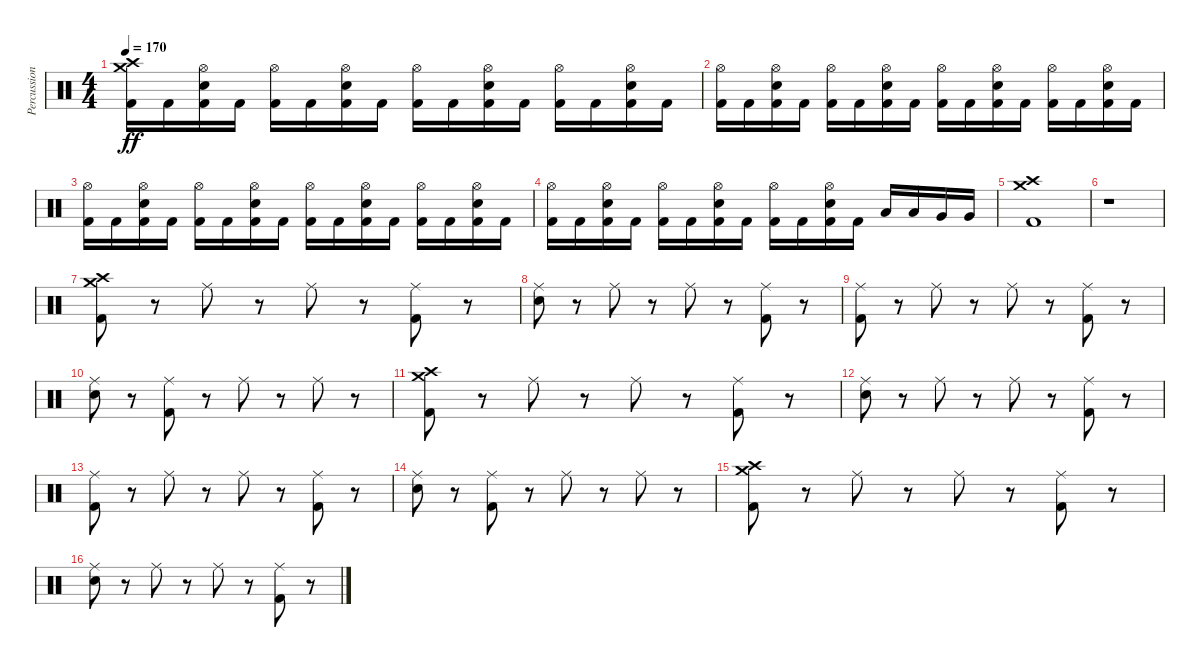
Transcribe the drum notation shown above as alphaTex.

\track ("Percussion" "Percussion") {instrument percussion}
\staff {score}
\articulation defaults
\ts (4 4)
\tempo 170
\clef neutral
\ks c
("Kick (hit) 2" "Crash medium (hit)" "Crash high (hit)").16{dy ff} "Kick (hit) 2".16 ("Kick (hit) 2" "Electric Snare (hit)" "Hi-Hat (open)").16 "Kick (hit) 2".16 ("Kick (hit) 2" "Hi-Hat (open)").16 "Kick (hit) 2".16 ("Kick (hit) 2" "Electric Snare (hit)" "Hi-Hat (open)").16 "Kick (hit) 2".16 ("Kick (hit) 2" "Hi-Hat (open)").16 "Kick (hit) 2".16 ("Kick (hit) 2" "Electric Snare (hit)" "Hi-Hat (open)").16 "Kick (hit) 2".16 ("Kick (hit) 2" "Hi-Hat (open)").16 "Kick (hit) 2".16 ("Kick (hit) 2" "Electric Snare (hit)" "Hi-Hat (open)").16 "Kick (hit) 2".16 |
("Kick (hit) 2" "Hi-Hat (open)").16 "Kick (hit) 2".16 ("Kick (hit) 2" "Electric Snare (hit)" "Hi-Hat (open)").16 "Kick (hit) 2".16 ("Kick (hit) 2" "Hi-Hat (open)").16 "Kick (hit) 2".16 ("Kick (hit) 2" "Electric Snare (hit)" "Hi-Hat (open)").16 "Kick (hit) 2".16 ("Kick (hit) 2" "Hi-Hat (open)").16 "Kick (hit) 2".16 ("Kick (hit) 2" "Electric Snare (hit)" "Hi-Hat (open)").16 "Kick (hit) 2".16 ("Kick (hit) 2" "Hi-Hat (open)").16 "Kick (hit) 2".16 ("Kick (hit) 2" "Electric Snare (hit)" "Hi-Hat (open)").16 "Kick (hit) 2".16 |
("Kick (hit) 2" "Hi-Hat (open)").16 "Kick (hit) 2".16 ("Kick (hit) 2" "Electric Snare (hit)" "Hi-Hat (open)").16 "Kick (hit) 2".16 ("Kick (hit) 2" "Hi-Hat (open)").16 "Kick (hit) 2".16 ("Kick (hit) 2" "Electric Snare (hit)" "Hi-Hat (open)").16 "Kick (hit) 2".16 ("Kick (hit) 2" "Hi-Hat (open)").16 "Kick (hit) 2".16 ("Kick (hit) 2" "Electric Snare (hit)" "Hi-Hat (open)").16 "Kick (hit) 2".16 ("Kick (hit) 2" "Hi-Hat (open)").16 "Kick (hit) 2".16 ("Kick (hit) 2" "Electric Snare (hit)" "Hi-Hat (open)").16 "Kick (hit) 2".16 |
("Kick (hit) 2" "Hi-Hat (open)").16 "Kick (hit) 2".16 ("Kick (hit) 2" "Electric Snare (hit)" "Hi-Hat (open)").16 "Kick (hit) 2".16 ("Kick (hit) 2" "Hi-Hat (open)").16 "Kick (hit) 2".16 ("Kick (hit) 2" "Electric Snare (hit)" "Hi-Hat (open)").16 "Kick (hit) 2".16 ("Kick (hit) 2" "Hi-Hat (open)").16 "Kick (hit) 2".16 ("Kick (hit) 2" "Electric Snare (hit)" "Hi-Hat (open)").16 "Kick (hit) 2".16 "Low Tom (hit)".16 "Low Tom (hit)".16 "Very Low Tom (hit)".16 "Very Low Tom (hit)".16 |
("Kick (hit) 2" "Crash medium (hit)" "Crash high (hit)").1 |
r.1 |
("Kick (hit) 2" "Crash medium (hit)" "Crash high (hit)").8 r.8 "Ride (middle)".8 r.8 "Ride (middle)".8 r.8 ("Kick (hit) 2" "Ride (middle)").8 r.8 |
("Electric Snare (hit)" "Ride (middle)").8 r.8 "Ride (middle)".8 r.8 "Ride (middle)".8 r.8 ("Kick (hit) 2" "Ride (middle)").8 r.8 |
("Kick (hit) 2" "Ride (middle)").8 r.8 "Ride (middle)".8 r.8 "Ride (middle)".8 r.8 ("Kick (hit) 2" "Ride (middle)").8 r.8 |
("Electric Snare (hit)" "Ride (middle)").8 r.8 ("Kick (hit) 2" "Ride (middle)").8 r.8 "Ride (middle)".8 r.8 "Ride (middle)".8 r.8 |
("Kick (hit) 2" "Crash medium (hit)" "Crash high (hit)").8 r.8 "Ride (middle)".8 r.8 "Ride (middle)".8 r.8 ("Kick (hit) 2" "Ride (middle)").8 r.8 |
("Electric Snare (hit)" "Ride (middle)").8 r.8 "Ride (middle)".8 r.8 "Ride (middle)".8 r.8 ("Kick (hit) 2" "Ride (middle)").8 r.8 |
("Kick (hit) 2" "Ride (middle)").8 r.8 "Ride (middle)".8 r.8 "Ride (middle)".8 r.8 ("Kick (hit) 2" "Ride (middle)").8 r.8 |
("Electric Snare (hit)" "Ride (middle)").8 r.8 ("Kick (hit) 2" "Ride (middle)").8 r.8 "Ride (middle)".8 r.8 "Ride (middle)".8 r.8 |
("Kick (hit) 2" "Crash medium (hit)" "Crash high (hit)").8 r.8 "Ride (middle)".8 r.8 "Ride (middle)".8 r.8 ("Kick (hit) 2" "Ride (middle)").8 r.8 |
("Electric Snare (hit)" "Ride (middle)").8 r.8 "Ride (middle)".8 r.8 "Ride (middle)".8 r.8 ("Kick (hit) 2" "Ride (middle)").8 r.8
